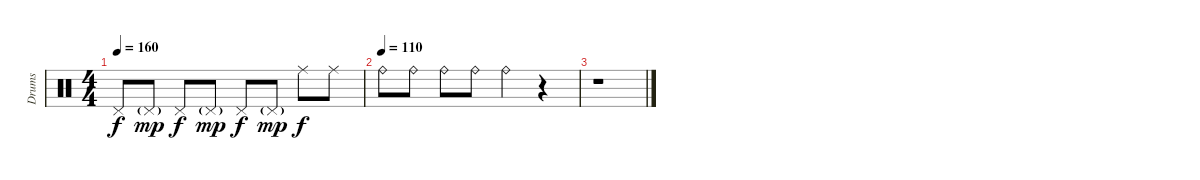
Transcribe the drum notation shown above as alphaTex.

\track ("Drums" "Drums") {instrument percussion}
\staff {score}
\articulation defaults
\ts (4 4)
\tempo 160
\clef neutral
\ks c "Pedal Hi-Hat (hit)".8{dy f} "Pedal Hi-Hat (hit)"{g}.8{dy mp} "Pedal Hi-Hat (hit)".8{dy f} "Pedal Hi-Hat (hit)"{g}.8{dy mp} "Pedal Hi-Hat (hit)".8{dy f} "Pedal Hi-Hat (hit)"{g}.8{dy mp} "Ride (middle)".8{dy f} "Ride (middle)".8
|
\tempo (110)
"Ride (bell)".8 "Ride (bell)".8 "Ride (bell)".8 "Ride (bell)".8 "Ride (bell)".4 r.4 |
r.1
